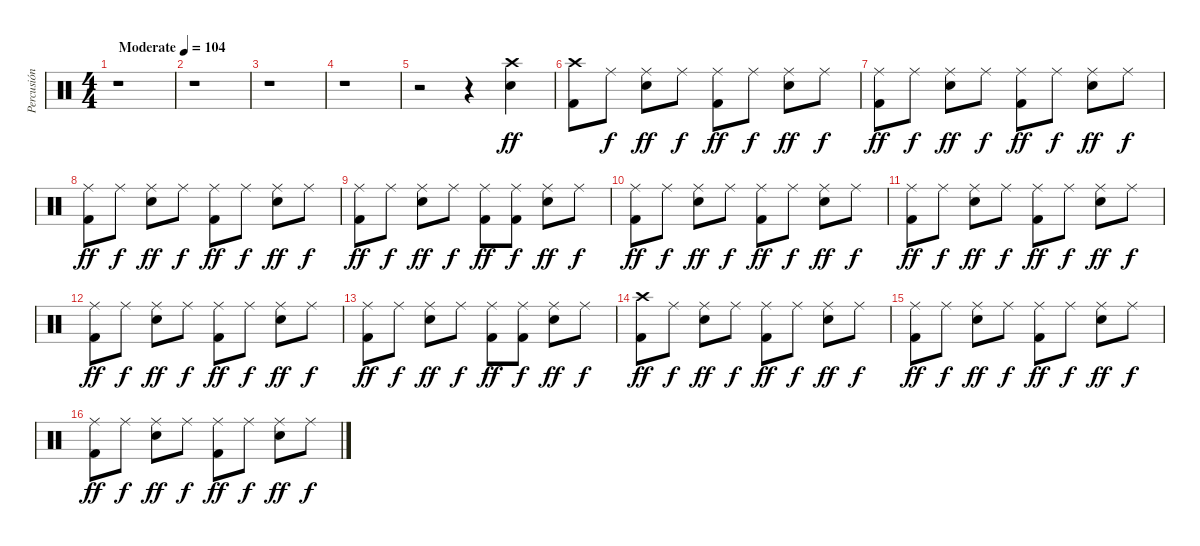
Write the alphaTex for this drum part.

\track ("Percusión" "Percusión") {instrument percussion}
\staff {score}
\articulation defaults
\ts (4 4)
\tempo (104 "Moderate")
\clef neutral
\ks c
r.1{dy ff} |
r.1 |
r.1 |
r.1 |
r.2 r.4 ("Crash high (hit)" "Snare (hit) 2").4 |
("Crash high (hit)" "Kick (hit) 2").8 "Ride (middle)".8{dy f} ("Ride (middle)" "Snare (hit) 2").8{dy ff} "Ride (middle)".8{dy f} ("Ride (middle)" "Kick (hit) 2").8{dy ff} "Ride (middle)".8{dy f} ("Ride (middle)" "Snare (hit) 2").8{dy ff} "Ride (middle)".8{dy f} |
("Ride (middle)" "Kick (hit) 2").8{dy ff} "Ride (middle)".8{dy f} ("Ride (middle)" "Snare (hit) 2").8{dy ff} "Ride (middle)".8{dy f} ("Ride (middle)" "Kick (hit) 2").8{dy ff} "Ride (middle)".8{dy f} ("Ride (middle)" "Snare (hit) 2").8{dy ff} "Ride (middle)".8{dy f} |
("Ride (middle)" "Kick (hit) 2").8{dy ff} "Ride (middle)".8{dy f} ("Ride (middle)" "Snare (hit) 2").8{dy ff} "Ride (middle)".8{dy f} ("Ride (middle)" "Kick (hit) 2").8{dy ff} "Ride (middle)".8{dy f} ("Ride (middle)" "Snare (hit) 2").8{dy ff} "Ride (middle)".8{dy f} |
("Ride (middle)" "Kick (hit) 2").8{dy ff} "Ride (middle)".8{dy f} ("Ride (middle)" "Snare (hit) 2").8{dy ff} "Ride (middle)".8{dy f} ("Ride (middle)" "Kick (hit) 2").8{dy ff} ("Ride (middle)" "Kick (hit) 2").8{dy f} ("Ride (middle)" "Snare (hit) 2").8{dy ff} "Ride (middle)".8{dy f} |
("Ride (middle)" "Kick (hit) 2").8{dy ff} "Ride (middle)".8{dy f} ("Ride (middle)" "Snare (hit) 2").8{dy ff} "Ride (middle)".8{dy f} ("Ride (middle)" "Kick (hit) 2").8{dy ff} "Ride (middle)".8{dy f} ("Ride (middle)" "Snare (hit) 2").8{dy ff} "Ride (middle)".8{dy f} |
("Ride (middle)" "Kick (hit) 2").8{dy ff} "Ride (middle)".8{dy f} ("Ride (middle)" "Snare (hit) 2").8{dy ff} "Ride (middle)".8{dy f} ("Ride (middle)" "Kick (hit) 2").8{dy ff} "Ride (middle)".8{dy f} ("Ride (middle)" "Snare (hit) 2").8{dy ff} "Ride (middle)".8{dy f} |
("Ride (middle)" "Kick (hit) 2").8{dy ff} "Ride (middle)".8{dy f} ("Ride (middle)" "Snare (hit) 2").8{dy ff} "Ride (middle)".8{dy f} ("Ride (middle)" "Kick (hit) 2").8{dy ff} "Ride (middle)".8{dy f} ("Ride (middle)" "Snare (hit) 2").8{dy ff} "Ride (middle)".8{dy f} |
("Ride (middle)" "Kick (hit) 2").8{dy ff} "Ride (middle)".8{dy f} ("Ride (middle)" "Snare (hit) 2").8{dy ff} "Ride (middle)".8{dy f} ("Ride (middle)" "Kick (hit) 2").8{dy ff} ("Ride (middle)" "Kick (hit) 2").8{dy f} ("Ride (middle)" "Snare (hit) 2").8{dy ff} "Ride (middle)".8{dy f} |
("Crash high (hit)" "Kick (hit) 2").8{dy ff} "Ride (middle)".8{dy f} ("Ride (middle)" "Snare (hit) 2").8{dy ff} "Ride (middle)".8{dy f} ("Ride (middle)" "Kick (hit) 2").8{dy ff} "Ride (middle)".8{dy f} ("Ride (middle)" "Snare (hit) 2").8{dy ff} "Ride (middle)".8{dy f} |
("Ride (middle)" "Kick (hit) 2").8{dy ff} "Ride (middle)".8{dy f} ("Ride (middle)" "Snare (hit) 2").8{dy ff} "Ride (middle)".8{dy f} ("Ride (middle)" "Kick (hit) 2").8{dy ff} "Ride (middle)".8{dy f} ("Ride (middle)" "Snare (hit) 2").8{dy ff} "Ride (middle)".8{dy f} |
("Ride (middle)" "Kick (hit) 2").8{dy ff} "Ride (middle)".8{dy f} ("Ride (middle)" "Snare (hit) 2").8{dy ff} "Ride (middle)".8{dy f} ("Ride (middle)" "Kick (hit) 2").8{dy ff} "Ride (middle)".8{dy f} ("Ride (middle)" "Snare (hit) 2").8{dy ff} "Ride (middle)".8{dy f}
